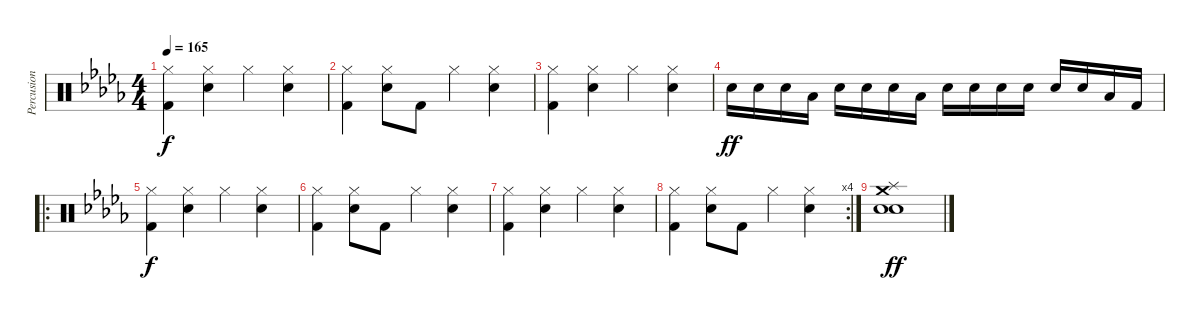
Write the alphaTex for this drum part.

\track ("Percusion (percussions)" "Percusion ") {instrument percussion}
\staff {score}
\articulation defaults
\ts (4 4)
\tempo 165
\clef neutral
\ks db
("Hi-Hat (closed)" "Kick (hit) 2").4{dy f} ("Hi-Hat (closed)" "Snare (hit) 2").4 "Hi-Hat (closed)".4 ("Hi-Hat (closed)" "Snare (hit) 2").4 |
("Hi-Hat (closed)" "Kick (hit) 2").4 ("Hi-Hat (closed)" "Snare (hit) 2").8 "Kick (hit) 2".8 "Hi-Hat (closed)".4 ("Hi-Hat (closed)" "Snare (hit) 2").4 |
("Hi-Hat (closed)" "Kick (hit) 2").4 ("Hi-Hat (closed)" "Snare (hit) 2").4 "Hi-Hat (closed)".4 ("Hi-Hat (closed)" "Snare (hit) 2").4 |
"Snare (hit) 2".16{dy ff} "Snare (hit) 2".16 "Snare (hit) 2".16 "Low Floor Tom (hit)".16 "Snare (hit) 2".16 "Snare (hit) 2".16 "Snare (hit) 2".16 "Low Floor Tom (hit)".16 "Snare (hit) 2".16 "Snare (hit) 2".16 "Snare (hit) 2".16 "Snare (hit) 2".16 "Snare (hit) 2".16 "Snare (hit) 2".16 "Low Floor Tom (hit)".16 "Kick (hit) 2".16 |
\ro
("Hi-Hat (closed)" "Kick (hit) 2").4{dy f} ("Hi-Hat (closed)" "Snare (hit) 2").4 "Hi-Hat (closed)".4 ("Hi-Hat (closed)" "Snare (hit) 2").4 |
("Hi-Hat (closed)" "Kick (hit) 2").4 ("Hi-Hat (closed)" "Snare (hit) 2").8 "Kick (hit) 2".8 "Hi-Hat (closed)".4 ("Hi-Hat (closed)" "Snare (hit) 2").4 |
("Hi-Hat (closed)" "Kick (hit) 2").4 ("Hi-Hat (closed)" "Snare (hit) 2").4 "Hi-Hat (closed)".4 ("Hi-Hat (closed)" "Snare (hit) 2").4 |
\rc 4
("Hi-Hat (closed)" "Kick (hit) 2").4 ("Hi-Hat (closed)" "Snare (hit) 2").8 "Kick (hit) 2".8 "Hi-Hat (closed)".4 ("Hi-Hat (closed)" "Snare (hit) 2").4 |
("Snare (hit)" "Splash (hit)" "Crash medium (hit)" "Snare (hit) 2").1{dy ff}
